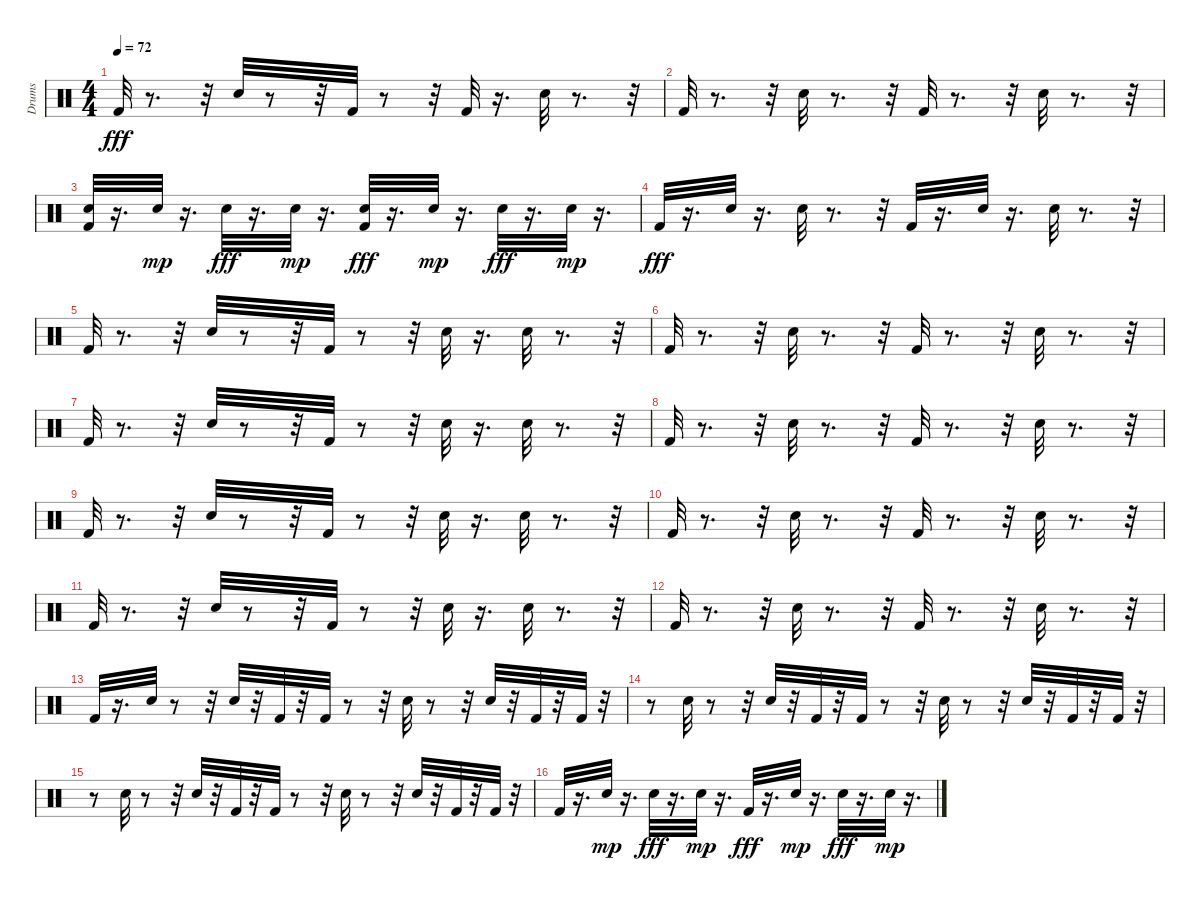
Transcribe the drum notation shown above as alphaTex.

\track ("Drums" "Drums") {instrument percussion}
\staff {score}
\articulation defaults
\ts (4 4)
\tempo 72
\clef neutral
\ks c "Kick (hit) 2".32{dy fff}
r.8{d} r.32 "Snare (hit) 2".32 r.8 r.32 "Kick (hit) 2".32 r.8 r.32 "Kick (hit) 2".32 r.16{d} "Snare (hit) 2".32 r.8{d} r.32 |
"Kick (hit) 2".32 r.8{d} r.32 "Snare (hit) 2".32 r.8{d} r.32 "Kick (hit) 2".32 r.8{d} r.32 "Snare (hit) 2".32 r.8{d} r.32 |
("Snare (hit) 2" "Kick (hit) 2").32 r.16{d} "Snare (hit) 2".32{dy mp} r.16{d} "Snare (hit) 2".32{dy fff} r.16{d} "Snare (hit) 2".32{dy mp} r.16{d} ("Snare (hit) 2" "Kick (hit) 2").32{dy fff} r.16{d} "Snare (hit) 2".32{dy mp} r.16{d} "Snare (hit) 2".32{dy fff} r.16{d} "Snare (hit) 2".32{dy mp} r.16{d} |
"Kick (hit) 2".32{dy fff} r.16{d} "Snare (hit) 2".32 r.16{d} "Snare (hit) 2".32 r.8{d} r.32 "Kick (hit) 2".32 r.16{d} "Snare (hit) 2".32 r.16{d} "Snare (hit) 2".32 r.8{d} r.32 |
"Kick (hit) 2".32 r.8{d} r.32 "Snare (hit) 2".32 r.8 r.32 "Kick (hit) 2".32 r.8 r.32 "Snare (hit) 2".32 r.16{d} "Snare (hit) 2".32 r.8{d} r.32 |
"Kick (hit) 2".32 r.8{d} r.32 "Snare (hit) 2".32 r.8{d} r.32 "Kick (hit) 2".32 r.8{d} r.32 "Snare (hit) 2".32 r.8{d} r.32 |
"Kick (hit) 2".32 r.8{d} r.32 "Snare (hit) 2".32 r.8 r.32 "Kick (hit) 2".32 r.8 r.32 "Snare (hit) 2".32 r.16{d} "Snare (hit) 2".32 r.8{d} r.32 |
"Kick (hit) 2".32 r.8{d} r.32 "Snare (hit) 2".32 r.8{d} r.32 "Kick (hit) 2".32 r.8{d} r.32 "Snare (hit) 2".32 r.8{d} r.32 |
"Kick (hit) 2".32 r.8{d} r.32 "Snare (hit) 2".32 r.8 r.32 "Kick (hit) 2".32 r.8 r.32 "Snare (hit) 2".32 r.16{d} "Snare (hit) 2".32 r.8{d} r.32 |
"Kick (hit) 2".32 r.8{d} r.32 "Snare (hit) 2".32 r.8{d} r.32 "Kick (hit) 2".32 r.8{d} r.32 "Snare (hit) 2".32 r.8{d} r.32 |
"Kick (hit) 2".32 r.8{d} r.32 "Snare (hit) 2".32 r.8 r.32 "Kick (hit) 2".32 r.8 r.32 "Snare (hit) 2".32 r.16{d} "Snare (hit) 2".32 r.8{d} r.32 |
"Kick (hit) 2".32 r.8{d} r.32 "Snare (hit) 2".32 r.8{d} r.32 "Kick (hit) 2".32 r.8{d} r.32 "Snare (hit) 2".32 r.8{d} r.32 |
"Kick (hit) 2".32 r.16{d} "Snare (hit) 2".32 r.8 r.32 "Snare (hit) 2".32 r.32 "Kick (hit) 2".32 r.32 "Kick (hit) 2".32 r.8 r.32 "Snare (hit) 2".32 r.8 r.32 "Snare (hit) 2".32 r.32 "Kick (hit) 2".32 r.32 "Kick (hit) 2".32 r.32 |
r.8 "Snare (hit) 2".32 r.8 r.32 "Snare (hit) 2".32 r.32 "Kick (hit) 2".32 r.32 "Kick (hit) 2".32 r.8 r.32 "Snare (hit) 2".32 r.8 r.32 "Snare (hit) 2".32 r.32 "Kick (hit) 2".32 r.32 "Kick (hit) 2".32 r.32 |
r.8 "Snare (hit) 2".32 r.8 r.32 "Snare (hit) 2".32 r.32 "Kick (hit) 2".32 r.32 "Kick (hit) 2".32 r.8 r.32 "Snare (hit) 2".32 r.8 r.32 "Snare (hit) 2".32 r.32 "Kick (hit) 2".32 r.32 "Kick (hit) 2".32 r.32 |
"Kick (hit) 2".32 r.16{d} "Snare (hit) 2".32{dy mp} r.16{d} "Snare (hit) 2".32{dy fff} r.16{d} "Snare (hit) 2".32{dy mp} r.16{d} "Kick (hit) 2".32{dy fff} r.16{d} "Snare (hit) 2".32{dy mp} r.16{d} "Snare (hit) 2".32{dy fff} r.16{d} "Snare (hit) 2".32{dy mp} r.16{d}
